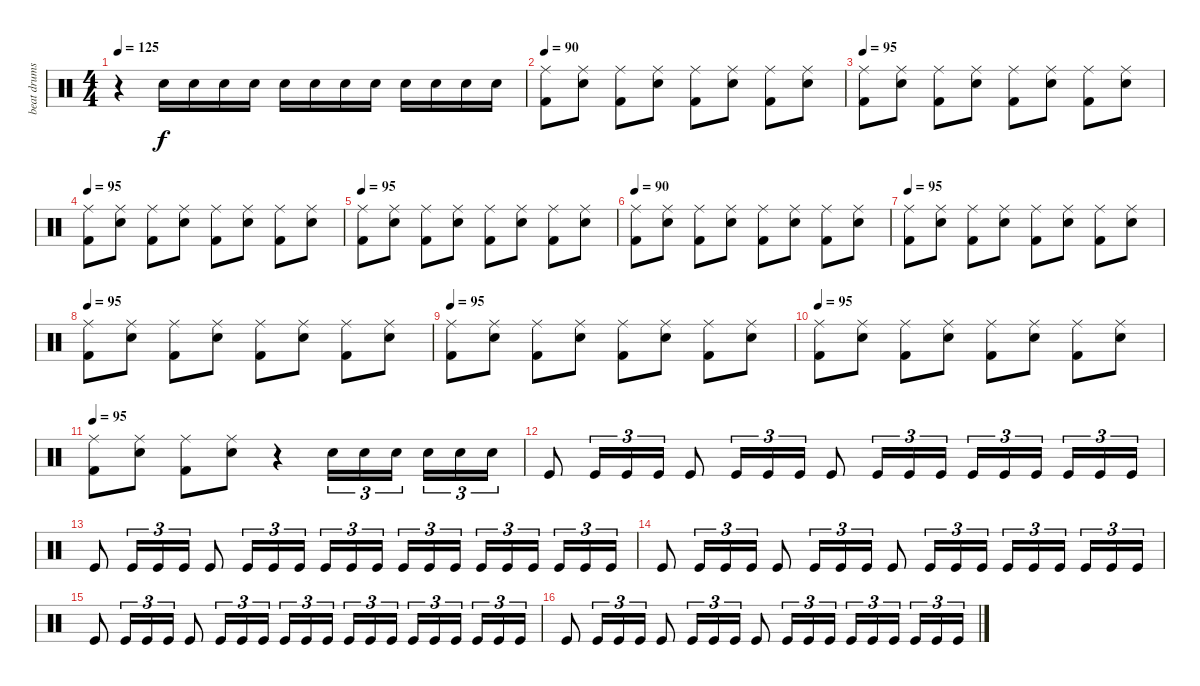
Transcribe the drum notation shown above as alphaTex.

\track ("beat drums" "beat drums") {instrument percussion}
\staff {score}
\articulation defaults
\ts (4 4)
\tempo 125
\clef neutral
\ks c
r.4{dy f} "Electric Snare (hit)".16 "Electric Snare (hit)".16 "Electric Snare (hit)".16 "Electric Snare (hit)".16 "Electric Snare (hit)".16 "Electric Snare (hit)".16 "Electric Snare (hit)".16 "Electric Snare (hit)".16 "Electric Snare (hit)".16 "Electric Snare (hit)".16 "Electric Snare (hit)".16 "Electric Snare (hit)".16 |
\tempo 90
("Ride (middle)" "Kick (hit) 2").8 ("Ride (middle)" "Electric Snare (hit)").8 ("Ride (middle)" "Kick (hit) 2").8 ("Ride (middle)" "Electric Snare (hit)").8 ("Ride (middle)" "Kick (hit) 2").8 ("Ride (middle)" "Electric Snare (hit)").8 ("Ride (middle)" "Kick (hit) 2").8 ("Ride (middle)" "Electric Snare (hit)").8 |
\tempo 95
("Ride (middle)" "Kick (hit) 2").8 ("Ride (middle)" "Electric Snare (hit)").8 ("Ride (middle)" "Kick (hit) 2").8 ("Ride (middle)" "Electric Snare (hit)").8 ("Ride (middle)" "Kick (hit) 2").8 ("Ride (middle)" "Electric Snare (hit)").8 ("Ride (middle)" "Kick (hit) 2").8 ("Ride (middle)" "Electric Snare (hit)").8 |
\tempo 95
("Ride (middle)" "Kick (hit) 2").8 ("Ride (middle)" "Electric Snare (hit)").8 ("Ride (middle)" "Kick (hit) 2").8 ("Ride (middle)" "Electric Snare (hit)").8 ("Ride (middle)" "Kick (hit) 2").8 ("Ride (middle)" "Electric Snare (hit)").8 ("Ride (middle)" "Kick (hit) 2").8 ("Ride (middle)" "Electric Snare (hit)").8 |
\tempo 95
("Ride (middle)" "Kick (hit) 2").8 ("Ride (middle)" "Electric Snare (hit)").8 ("Ride (middle)" "Kick (hit) 2").8 ("Ride (middle)" "Electric Snare (hit)").8 ("Ride (middle)" "Kick (hit) 2").8 ("Ride (middle)" "Electric Snare (hit)").8 ("Ride (middle)" "Kick (hit) 2").8 ("Ride (middle)" "Electric Snare (hit)").8 |
\tempo 90
("Ride (middle)" "Kick (hit) 2").8 ("Ride (middle)" "Electric Snare (hit)").8 ("Ride (middle)" "Kick (hit) 2").8 ("Ride (middle)" "Electric Snare (hit)").8 ("Ride (middle)" "Kick (hit) 2").8 ("Ride (middle)" "Electric Snare (hit)").8 ("Ride (middle)" "Kick (hit) 2").8 ("Ride (middle)" "Electric Snare (hit)").8 |
\tempo 95
("Ride (middle)" "Kick (hit) 2").8 ("Ride (middle)" "Electric Snare (hit)").8 ("Ride (middle)" "Kick (hit) 2").8 ("Ride (middle)" "Electric Snare (hit)").8 ("Ride (middle)" "Kick (hit) 2").8 ("Ride (middle)" "Electric Snare (hit)").8 ("Ride (middle)" "Kick (hit) 2").8 ("Ride (middle)" "Electric Snare (hit)").8 |
\tempo 95
("Ride (middle)" "Kick (hit) 2").8 ("Ride (middle)" "Electric Snare (hit)").8 ("Ride (middle)" "Kick (hit) 2").8 ("Ride (middle)" "Electric Snare (hit)").8 ("Ride (middle)" "Kick (hit) 2").8 ("Ride (middle)" "Electric Snare (hit)").8 ("Ride (middle)" "Kick (hit) 2").8 ("Ride (middle)" "Electric Snare (hit)").8 |
\tempo 95
("Ride (middle)" "Kick (hit) 2").8 ("Ride (middle)" "Electric Snare (hit)").8 ("Ride (middle)" "Kick (hit) 2").8 ("Ride (middle)" "Electric Snare (hit)").8 ("Ride (middle)" "Kick (hit) 2").8 ("Ride (middle)" "Electric Snare (hit)").8 ("Ride (middle)" "Kick (hit) 2").8 ("Ride (middle)" "Electric Snare (hit)").8 |
\tempo 95
("Ride (middle)" "Kick (hit) 2").8 ("Ride (middle)" "Electric Snare (hit)").8 ("Ride (middle)" "Kick (hit) 2").8 ("Ride (middle)" "Electric Snare (hit)").8 ("Ride (middle)" "Kick (hit) 2").8 ("Ride (middle)" "Electric Snare (hit)").8 ("Ride (middle)" "Kick (hit) 2").8 ("Ride (middle)" "Electric Snare (hit)").8 |
\tempo 95
("Ride (middle)" "Kick (hit) 2").8 ("Ride (middle)" "Electric Snare (hit)").8 ("Ride (middle)" "Kick (hit) 2").8 ("Ride (middle)" "Electric Snare (hit)").8 r.4 "Electric Snare (hit)".16{tu (3 2)} "Electric Snare (hit)".16{tu (3 2)} "Electric Snare (hit)".16{tu (3 2) beam splitsecondary} "Electric Snare (hit)".16{tu (3 2)} "Electric Snare (hit)".16{tu (3 2)} "Electric Snare (hit)".16{tu (3 2)} |
"Kick (hit)".8 "Kick (hit)".16{tu (3 2)} "Kick (hit)".16{tu (3 2)} "Kick (hit)".16{tu (3 2)} "Kick (hit)".8 "Kick (hit)".16{tu (3 2)} "Kick (hit)".16{tu (3 2)} "Kick (hit)".16{tu (3 2)} "Kick (hit)".8 "Kick (hit)".16{tu (3 2)} "Kick (hit)".16{tu (3 2)} "Kick (hit)".16{tu (3 2)} "Kick (hit)".16{tu (3 2)} "Kick (hit)".16{tu (3 2)} "Kick (hit)".16{tu (3 2) beam splitsecondary} "Kick (hit)".16{tu (3 2)} "Kick (hit)".16{tu (3 2)} "Kick (hit)".16{tu (3 2)} |
"Kick (hit)".8 "Kick (hit)".16{tu (3 2)} "Kick (hit)".16{tu (3 2)} "Kick (hit)".16{tu (3 2)} "Kick (hit)".8 "Kick (hit)".16{tu (3 2)} "Kick (hit)".16{tu (3 2)} "Kick (hit)".16{tu (3 2)} "Kick (hit)".16{tu (3 2)} "Kick (hit)".16{tu (3 2)} "Kick (hit)".16{tu (3 2) beam splitsecondary} "Kick (hit)".16{tu (3 2)} "Kick (hit)".16{tu (3 2)} "Kick (hit)".16{tu (3 2)} "Kick (hit)".16{tu (3 2)} "Kick (hit)".16{tu (3 2)} "Kick (hit)".16{tu (3 2) beam splitsecondary} "Kick (hit)".16{tu (3 2)} "Kick (hit)".16{tu (3 2)} "Kick (hit)".16{tu (3 2)} |
"Kick (hit)".8 "Kick (hit)".16{tu (3 2)} "Kick (hit)".16{tu (3 2)} "Kick (hit)".16{tu (3 2)} "Kick (hit)".8 "Kick (hit)".16{tu (3 2)} "Kick (hit)".16{tu (3 2)} "Kick (hit)".16{tu (3 2)} "Kick (hit)".8 "Kick (hit)".16{tu (3 2)} "Kick (hit)".16{tu (3 2)} "Kick (hit)".16{tu (3 2)} "Kick (hit)".16{tu (3 2)} "Kick (hit)".16{tu (3 2)} "Kick (hit)".16{tu (3 2) beam splitsecondary} "Kick (hit)".16{tu (3 2)} "Kick (hit)".16{tu (3 2)} "Kick (hit)".16{tu (3 2)} |
"Kick (hit)".8 "Kick (hit)".16{tu (3 2)} "Kick (hit)".16{tu (3 2)} "Kick (hit)".16{tu (3 2)} "Kick (hit)".8 "Kick (hit)".16{tu (3 2)} "Kick (hit)".16{tu (3 2)} "Kick (hit)".16{tu (3 2)} "Kick (hit)".16{tu (3 2)} "Kick (hit)".16{tu (3 2)} "Kick (hit)".16{tu (3 2) beam splitsecondary} "Kick (hit)".16{tu (3 2)} "Kick (hit)".16{tu (3 2)} "Kick (hit)".16{tu (3 2)} "Kick (hit)".16{tu (3 2)} "Kick (hit)".16{tu (3 2)} "Kick (hit)".16{tu (3 2) beam splitsecondary} "Kick (hit)".16{tu (3 2)} "Kick (hit)".16{tu (3 2)} "Kick (hit)".16{tu (3 2)} |
"Kick (hit)".8 "Kick (hit)".16{tu (3 2)} "Kick (hit)".16{tu (3 2)} "Kick (hit)".16{tu (3 2)} "Kick (hit)".8 "Kick (hit)".16{tu (3 2)} "Kick (hit)".16{tu (3 2)} "Kick (hit)".16{tu (3 2)} "Kick (hit)".8 "Kick (hit)".16{tu (3 2)} "Kick (hit)".16{tu (3 2)} "Kick (hit)".16{tu (3 2)} "Kick (hit)".16{tu (3 2)} "Kick (hit)".16{tu (3 2)} "Kick (hit)".16{tu (3 2) beam splitsecondary} "Kick (hit)".16{tu (3 2)} "Kick (hit)".16{tu (3 2)} "Kick (hit)".16{tu (3 2)}
